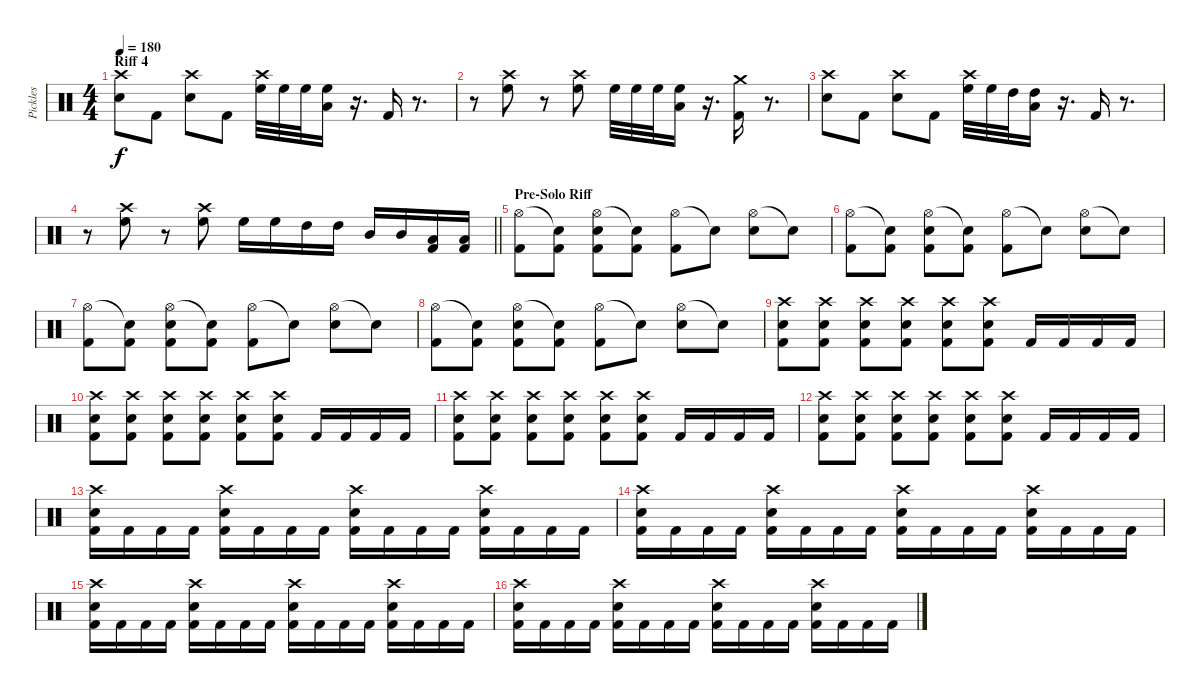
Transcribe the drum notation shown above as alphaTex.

\track ("Pickles" "Pickles") {instrument percussion}
\staff {score}
\articulation defaults
\ts (4 4)
\section ("" "Riff 4")
\tempo 180
\clef neutral
\ks c
("Crash high (hit)" "Snare (hit) 2").8{dy f} "Kick (hit) 2".8 ("Crash high (hit)" "Snare (hit) 2").8 "Kick (hit) 2".8 ("Crash high (hit)" "High Floor Tom (hit)").32 "High Floor Tom (hit)".32 "High Floor Tom (hit)".32 ("High Floor Tom (hit)" "Low Tom (hit)").16 r.16{d} "Kick (hit) 2".16 r.8{d} |
r.8 ("Crash high (hit)" "High Floor Tom (hit)").8 r.8 ("Crash high (hit)" "High Floor Tom (hit)").8 "High Floor Tom (hit)".32 "High Floor Tom (hit)".32 "High Floor Tom (hit)".32 ("High Floor Tom (hit)" "Low Tom (hit)").16 r.16{d} ("Crash medium (hit)" "Kick (hit) 2").16 r.8{d} |
("Crash high (hit)" "Snare (hit) 2").8 "Kick (hit) 2".8 ("Crash high (hit)" "Snare (hit) 2").8 "Kick (hit) 2".8 ("Crash high (hit)" "High Floor Tom (hit)").32 "High Floor Tom (hit)".32 "High Tom (hit)".32 ("High Tom (hit)" "Low Tom (hit)").16 r.16{d} "Kick (hit) 2".16 r.8{d} |
\barLineRight lightlight
r.8 ("Crash high (hit)" "High Floor Tom (hit)").8 r.8 ("Crash high (hit)" "High Floor Tom (hit)").8 "High Floor Tom (hit)".16 "High Floor Tom (hit)".16 "High Tom (hit)".16 "High Tom (hit)".16 "Mid Tom (hit)".16 "Mid Tom (hit)".16 ("Low Tom (hit)" "Kick (hit) 2").16 ("Low Tom (hit)" "Kick (hit) 2").16 |
\section ("" "Pre-Solo Riff")
("Hi-Hat (open)" "Kick (hit) 2").8 ("Snare (hit)"{t} "Kick (hit) 2").8 ("Hi-Hat (open)" "Snare (hit) 2" "Kick (hit) 2").8 ("Snare (hit)"{t} "Kick (hit) 2").8 ("Hi-Hat (open)" "Kick (hit) 2").8 "Snare (hit)"{t}.8 ("Hi-Hat (open)" "Snare (hit) 2").8 "Snare (hit)"{t}.8 |
("Hi-Hat (open)" "Kick (hit) 2").8 ("Snare (hit)"{t} "Kick (hit) 2").8 ("Hi-Hat (open)" "Snare (hit) 2" "Kick (hit) 2").8 ("Snare (hit)"{t} "Kick (hit) 2").8 ("Hi-Hat (open)" "Kick (hit) 2").8 "Snare (hit)"{t}.8 ("Hi-Hat (open)" "Snare (hit) 2").8 "Snare (hit)"{t}.8 |
("Hi-Hat (open)" "Kick (hit) 2").8 ("Snare (hit)"{t} "Kick (hit) 2").8 ("Hi-Hat (open)" "Snare (hit) 2" "Kick (hit) 2").8 ("Snare (hit)"{t} "Kick (hit) 2").8 ("Hi-Hat (open)" "Kick (hit) 2").8 "Snare (hit)"{t}.8 ("Hi-Hat (open)" "Snare (hit) 2").8 "Snare (hit)"{t}.8 |
("Hi-Hat (open)" "Kick (hit) 2").8 ("Snare (hit)"{t} "Kick (hit) 2").8 ("Hi-Hat (open)" "Snare (hit) 2" "Kick (hit) 2").8 ("Snare (hit)"{t} "Kick (hit) 2").8 ("Hi-Hat (open)" "Kick (hit) 2").8 "Snare (hit)"{t}.8 ("Hi-Hat (open)" "Snare (hit) 2").8 "Snare (hit)"{t}.8 |
("Crash high (hit)" "Snare (hit) 2" "Kick (hit) 2").8 ("Crash high (hit)" "Snare (hit) 2" "Kick (hit) 2").8 ("Crash high (hit)" "Snare (hit) 2" "Kick (hit) 2").8 ("Crash high (hit)" "Snare (hit) 2" "Kick (hit) 2").8 ("Crash high (hit)" "Snare (hit) 2" "Kick (hit) 2").8 ("Crash high (hit)" "Snare (hit) 2" "Kick (hit) 2").8 "Kick (hit) 2".16 "Kick (hit) 2".16 "Kick (hit) 2".16 "Kick (hit) 2".16 |
("Crash high (hit)" "Snare (hit) 2" "Kick (hit) 2").8 ("Crash high (hit)" "Snare (hit) 2" "Kick (hit) 2").8 ("Crash high (hit)" "Snare (hit) 2" "Kick (hit) 2").8 ("Crash high (hit)" "Snare (hit) 2" "Kick (hit) 2").8 ("Crash high (hit)" "Snare (hit) 2" "Kick (hit) 2").8 ("Crash high (hit)" "Snare (hit) 2" "Kick (hit) 2").8 "Kick (hit) 2".16 "Kick (hit) 2".16 "Kick (hit) 2".16 "Kick (hit) 2".16 |
("Crash high (hit)" "Snare (hit) 2" "Kick (hit) 2").8 ("Crash high (hit)" "Snare (hit) 2" "Kick (hit) 2").8 ("Crash high (hit)" "Snare (hit) 2" "Kick (hit) 2").8 ("Crash high (hit)" "Snare (hit) 2" "Kick (hit) 2").8 ("Crash high (hit)" "Snare (hit) 2" "Kick (hit) 2").8 ("Crash high (hit)" "Snare (hit) 2" "Kick (hit) 2").8 "Kick (hit) 2".16 "Kick (hit) 2".16 "Kick (hit) 2".16 "Kick (hit) 2".16 |
("Crash high (hit)" "Snare (hit) 2" "Kick (hit) 2").8 ("Crash high (hit)" "Snare (hit) 2" "Kick (hit) 2").8 ("Crash high (hit)" "Snare (hit) 2" "Kick (hit) 2").8 ("Crash high (hit)" "Snare (hit) 2" "Kick (hit) 2").8 ("Crash high (hit)" "Snare (hit) 2" "Kick (hit) 2").8 ("Crash high (hit)" "Snare (hit) 2" "Kick (hit) 2").8 "Kick (hit) 2".16 "Kick (hit) 2".16 "Kick (hit) 2".16 "Kick (hit) 2".16 |
("Crash high (hit)" "Snare (hit) 2" "Kick (hit) 2").16 "Kick (hit) 2".16 "Kick (hit) 2".16 "Kick (hit) 2".16 ("Crash high (hit)" "Snare (hit) 2" "Kick (hit) 2").16 "Kick (hit) 2".16 "Kick (hit) 2".16 "Kick (hit) 2".16 ("Crash high (hit)" "Snare (hit) 2" "Kick (hit) 2").16 "Kick (hit) 2".16 "Kick (hit) 2".16 "Kick (hit) 2".16 ("Crash high (hit)" "Snare (hit) 2" "Kick (hit) 2").16 "Kick (hit) 2".16 "Kick (hit) 2".16 "Kick (hit) 2".16 |
("Crash high (hit)" "Snare (hit) 2" "Kick (hit) 2").16 "Kick (hit) 2".16 "Kick (hit) 2".16 "Kick (hit) 2".16 ("Crash high (hit)" "Snare (hit) 2" "Kick (hit) 2").16 "Kick (hit) 2".16 "Kick (hit) 2".16 "Kick (hit) 2".16 ("Crash high (hit)" "Snare (hit) 2" "Kick (hit) 2").16 "Kick (hit) 2".16 "Kick (hit) 2".16 "Kick (hit) 2".16 ("Crash high (hit)" "Snare (hit) 2" "Kick (hit) 2").16 "Kick (hit) 2".16 "Kick (hit) 2".16 "Kick (hit) 2".16 |
("Crash high (hit)" "Snare (hit) 2" "Kick (hit) 2").16 "Kick (hit) 2".16 "Kick (hit) 2".16 "Kick (hit) 2".16 ("Crash high (hit)" "Snare (hit) 2" "Kick (hit) 2").16 "Kick (hit) 2".16 "Kick (hit) 2".16 "Kick (hit) 2".16 ("Crash high (hit)" "Snare (hit) 2" "Kick (hit) 2").16 "Kick (hit) 2".16 "Kick (hit) 2".16 "Kick (hit) 2".16 ("Crash high (hit)" "Snare (hit) 2" "Kick (hit) 2").16 "Kick (hit) 2".16 "Kick (hit) 2".16 "Kick (hit) 2".16 |
("Crash high (hit)" "Snare (hit) 2" "Kick (hit) 2").16 "Kick (hit) 2".16 "Kick (hit) 2".16 "Kick (hit) 2".16 ("Crash high (hit)" "Snare (hit) 2" "Kick (hit) 2").16 "Kick (hit) 2".16 "Kick (hit) 2".16 "Kick (hit) 2".16 ("Crash high (hit)" "Snare (hit) 2" "Kick (hit) 2").16 "Kick (hit) 2".16 "Kick (hit) 2".16 "Kick (hit) 2".16 ("Crash high (hit)" "Snare (hit) 2" "Kick (hit) 2").16 "Kick (hit) 2".16 "Kick (hit) 2".16 "Kick (hit) 2".16
